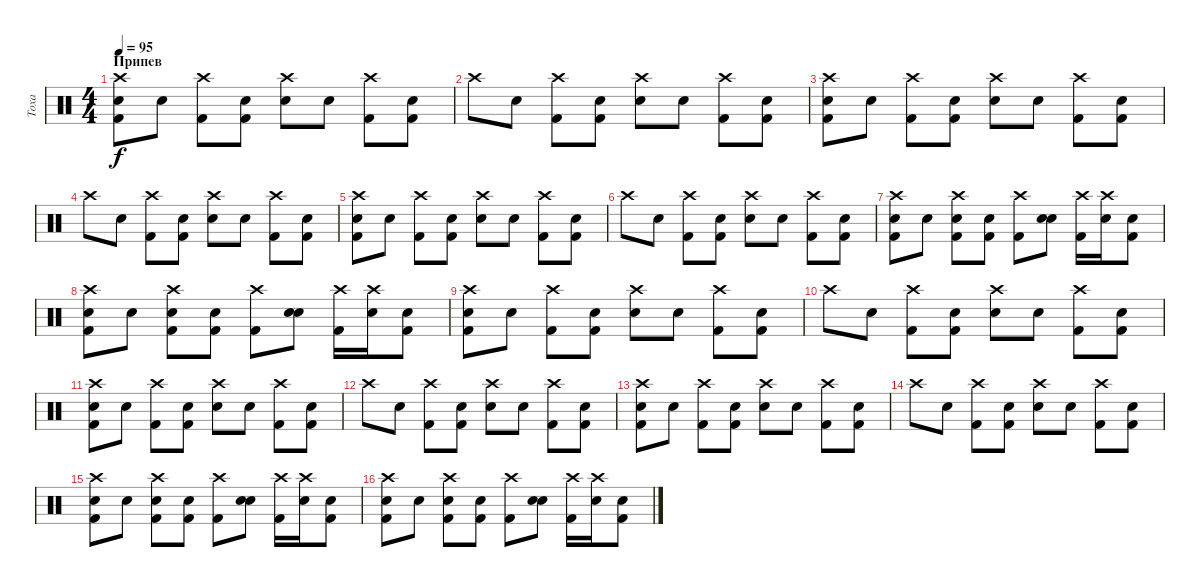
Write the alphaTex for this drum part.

\track ("Toxa" "Toxa") {instrument percussion}
\staff {score}
\articulation defaults
\ts (4 4)
\section ("" "Припев")
\tempo 95
\clef neutral
\ks c
("Crash high (hit)" "Kick (hit) 2" "Snare (hit) 2").8{dy f} "Snare (hit)".8 ("Crash high (hit)" "Kick (hit) 2").8 ("Snare (hit)" "Kick (hit) 2").8 ("Crash high (hit)" "Electric Snare (hit)").8 "Snare (hit)".8 ("Crash high (hit)" "Kick (hit) 2").8 ("Snare (hit)" "Kick (hit) 2").8 |
"Crash high (hit)".8 "Snare (hit)".8 ("Crash high (hit)" "Kick (hit) 2").8 ("Snare (hit)" "Kick (hit) 2").8 ("Crash high (hit)" "Electric Snare (hit)").8 "Snare (hit)".8 ("Crash high (hit)" "Kick (hit) 2").8 ("Snare (hit)" "Kick (hit) 2").8 |
("Crash high (hit)" "Kick (hit) 2" "Snare (hit) 2").8 "Snare (hit)".8 ("Crash high (hit)" "Kick (hit) 2").8 ("Snare (hit)" "Kick (hit) 2").8 ("Crash high (hit)" "Electric Snare (hit)").8 "Snare (hit)".8 ("Crash high (hit)" "Kick (hit) 2").8 ("Snare (hit)" "Kick (hit) 2").8 |
"Crash high (hit)".8 "Snare (hit)".8 ("Crash high (hit)" "Kick (hit) 2").8 ("Snare (hit)" "Kick (hit) 2").8 ("Crash high (hit)" "Electric Snare (hit)").8 "Snare (hit)".8 ("Crash high (hit)" "Kick (hit) 2").8 ("Snare (hit)" "Kick (hit) 2").8 |
("Crash high (hit)" "Kick (hit) 2" "Snare (hit) 2").8 "Snare (hit)".8 ("Crash high (hit)" "Kick (hit) 2").8 ("Snare (hit)" "Kick (hit) 2").8 ("Crash high (hit)" "Electric Snare (hit)").8 "Snare (hit)".8 ("Crash high (hit)" "Kick (hit) 2").8 ("Snare (hit)" "Kick (hit) 2").8 |
"Crash high (hit)".8 "Snare (hit)".8 ("Crash high (hit)" "Kick (hit) 2").8 ("Snare (hit)" "Kick (hit) 2").8 ("Crash high (hit)" "Electric Snare (hit)").8 "Snare (hit)".8 ("Crash high (hit)" "Kick (hit) 2").8 ("Snare (hit)" "Kick (hit) 2").8 |
("Crash high (hit)" "Kick (hit) 2" "Snare (hit) 2").8 "Snare (hit)".8 ("Crash high (hit)" "Kick (hit) 2" "Snare (hit) 2").8 ("Snare (hit)" "Kick (hit) 2").8 ("Crash high (hit)" "Kick (hit) 2").8 ("Snare (hit)" "Electric Snare (hit)").8 ("Crash high (hit)" "Kick (hit) 2").16 ("Crash high (hit)" "Electric Snare (hit)").16 ("Snare (hit)" "Kick (hit) 2").8 |
("Crash high (hit)" "Kick (hit) 2" "Snare (hit) 2").8 "Snare (hit)".8 ("Crash high (hit)" "Kick (hit) 2" "Snare (hit) 2").8 ("Snare (hit)" "Kick (hit) 2").8 ("Crash high (hit)" "Kick (hit) 2").8 ("Snare (hit)" "Electric Snare (hit)").8 ("Crash high (hit)" "Kick (hit) 2").16 ("Crash high (hit)" "Electric Snare (hit)").16 ("Snare (hit)" "Kick (hit) 2").8 |
("Crash high (hit)" "Kick (hit) 2" "Snare (hit) 2").8 "Snare (hit)".8 ("Crash high (hit)" "Kick (hit) 2").8 ("Snare (hit)" "Kick (hit) 2").8 ("Crash high (hit)" "Electric Snare (hit)").8 "Snare (hit)".8 ("Crash high (hit)" "Kick (hit) 2").8 ("Snare (hit)" "Kick (hit) 2").8 |
"Crash high (hit)".8 "Snare (hit)".8 ("Crash high (hit)" "Kick (hit) 2").8 ("Snare (hit)" "Kick (hit) 2").8 ("Crash high (hit)" "Electric Snare (hit)").8 "Snare (hit)".8 ("Crash high (hit)" "Kick (hit) 2").8 ("Snare (hit)" "Kick (hit) 2").8 |
("Crash high (hit)" "Kick (hit) 2" "Snare (hit) 2").8 "Snare (hit)".8 ("Crash high (hit)" "Kick (hit) 2").8 ("Snare (hit)" "Kick (hit) 2").8 ("Crash high (hit)" "Electric Snare (hit)").8 "Snare (hit)".8 ("Crash high (hit)" "Kick (hit) 2").8 ("Snare (hit)" "Kick (hit) 2").8 |
"Crash high (hit)".8 "Snare (hit)".8 ("Crash high (hit)" "Kick (hit) 2").8 ("Snare (hit)" "Kick (hit) 2").8 ("Crash high (hit)" "Electric Snare (hit)").8 "Snare (hit)".8 ("Crash high (hit)" "Kick (hit) 2").8 ("Snare (hit)" "Kick (hit) 2").8 |
("Crash high (hit)" "Kick (hit) 2" "Snare (hit) 2").8 "Snare (hit)".8 ("Crash high (hit)" "Kick (hit) 2").8 ("Snare (hit)" "Kick (hit) 2").8 ("Crash high (hit)" "Electric Snare (hit)").8 "Snare (hit)".8 ("Crash high (hit)" "Kick (hit) 2").8 ("Snare (hit)" "Kick (hit) 2").8 |
"Crash high (hit)".8 "Snare (hit)".8 ("Crash high (hit)" "Kick (hit) 2").8 ("Snare (hit)" "Kick (hit) 2").8 ("Crash high (hit)" "Electric Snare (hit)").8 "Snare (hit)".8 ("Crash high (hit)" "Kick (hit) 2").8 ("Snare (hit)" "Kick (hit) 2").8 |
("Crash high (hit)" "Kick (hit) 2" "Snare (hit) 2").8 "Snare (hit)".8 ("Crash high (hit)" "Kick (hit) 2" "Snare (hit) 2").8 ("Snare (hit)" "Kick (hit) 2").8 ("Crash high (hit)" "Kick (hit) 2").8 ("Snare (hit)" "Electric Snare (hit)").8 ("Crash high (hit)" "Kick (hit) 2").16 ("Crash high (hit)" "Electric Snare (hit)").16 ("Snare (hit)" "Kick (hit) 2").8 |
("Crash high (hit)" "Kick (hit) 2" "Snare (hit) 2").8 "Snare (hit)".8 ("Crash high (hit)" "Kick (hit) 2" "Snare (hit) 2").8 ("Snare (hit)" "Kick (hit) 2").8 ("Crash high (hit)" "Kick (hit) 2").8 ("Snare (hit)" "Electric Snare (hit)").8 ("Crash high (hit)" "Kick (hit) 2").16 ("Crash high (hit)" "Electric Snare (hit)").16 ("Snare (hit)" "Kick (hit) 2").8
